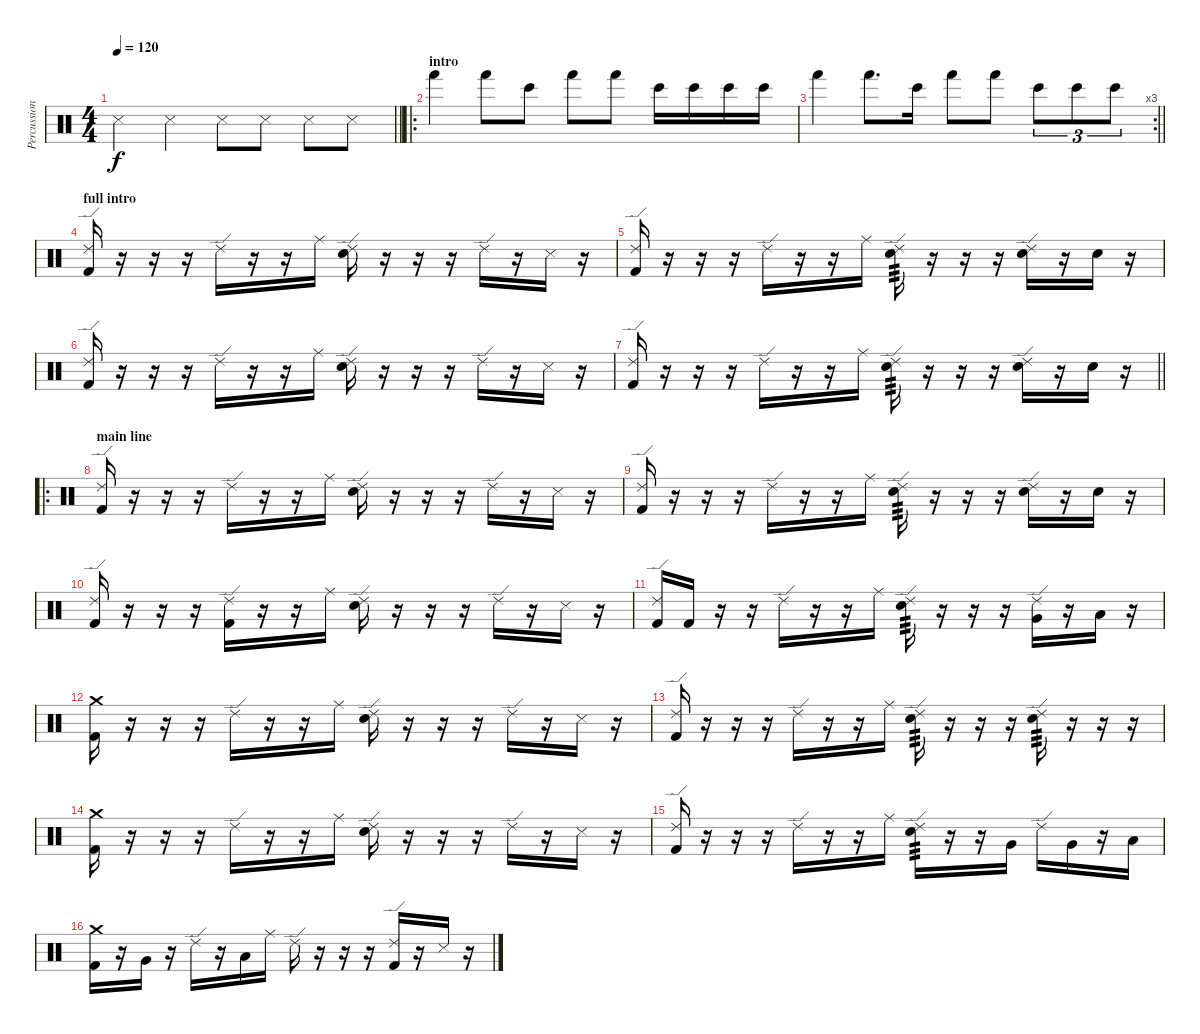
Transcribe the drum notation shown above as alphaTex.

\track ("Percussions" "Percussion") {instrument percussion}
\staff {score}
\articulation defaults
\ts (4 4)
\tempo 120
\clef neutral
\barLineRight lightlight
\ks c "Snare (side stick) 3".4{dy f} "Snare (side stick) 3".4 "Snare (side stick) 3".8 "Snare (side stick) 3".8 "Snare (side stick) 3".8 "Snare (side stick) 3".8
|
\ro
\section ("" "intro")
"Hand (hit)".4 "Hand (hit)".8 "Bongo High (hit)".8 "Hand (hit)".8 "Hand (hit)".8 "Bongo High (hit)".16 "Bongo High (hit)".16 "Bongo High (hit)".16 "Bongo High (hit)".16 |
\rc 3
\barLineRight lightlight "Hand (hit)".4 "Hand (hit)".8{d} "Bongo High (hit)".16 "Hand (hit)".8 "Hand (hit)".8 "Bongo High (hit)".8{tu (3 2)} "Bongo High (hit)".8{tu (3 2)} "Bongo High (hit)".8{tu (3 2)}
|
\section ("" "full intro")
("Ride (edge) 2" "Kick (hit) 2").16 r.16 r.16 r.16 "Ride (edge) 2".16 r.16 r.16 "Ride (middle)".16 ("Ride (edge) 2" "Snare (hit) 2").16 r.16 r.16 r.16 "Ride (edge) 2".16 r.16 "Snare (side stick) 3".16 r.16 |
("Ride (edge) 2" "Kick (hit) 2").16 r.16 r.16 r.16 "Ride (edge) 2".16 r.16 r.16 "Ride (middle)".16 ("Ride (edge) 2" "Snare (hit) 2").16{tp 3} r.16 r.16 r.16 ("Ride (edge) 2" "Snare (hit) 2").16 r.16 "Snare (hit) 2".16 r.16 |
("Ride (edge) 2" "Kick (hit) 2").16 r.16 r.16 r.16 "Ride (edge) 2".16 r.16 r.16 "Ride (middle)".16 ("Ride (edge) 2" "Snare (hit) 2").16 r.16 r.16 r.16 "Ride (edge) 2".16 r.16 "Snare (side stick) 3".16 r.16 |
\barLineRight lightlight
("Ride (edge) 2" "Kick (hit) 2").16 r.16 r.16 r.16 "Ride (edge) 2".16 r.16 r.16 "Ride (middle)".16 ("Ride (edge) 2" "Snare (hit) 2").16{tp 3} r.16 r.16 r.16 ("Ride (edge) 2" "Snare (hit) 2").16 r.16 "Snare (hit) 2".16 r.16 |
\ro
\section ("" "main line")
("Ride (edge) 2" "Kick (hit) 2").16 r.16 r.16 r.16 "Ride (edge) 2".16 r.16 r.16 "Ride (middle)".16 ("Ride (edge) 2" "Snare (hit) 2").16 r.16 r.16 r.16 "Ride (edge) 2".16 r.16 "Snare (side stick) 3".16 r.16 |
("Ride (edge) 2" "Kick (hit) 2").16 r.16 r.16 r.16 "Ride (edge) 2".16 r.16 r.16 "Ride (middle)".16 ("Ride (edge) 2" "Snare (hit) 2").16{tp 3} r.16 r.16 r.16 ("Ride (edge) 2" "Snare (hit) 2").16 r.16 "Snare (hit) 2".16 r.16 |
("Ride (edge) 2" "Kick (hit) 2").16 r.16 r.16 r.16 ("Ride (edge) 2" "Kick (hit) 2").16 r.16 r.16 "Ride (middle)".16 ("Ride (edge) 2" "Snare (hit) 2").16 r.16 r.16 r.16 "Ride (edge) 2".16 r.16 "Snare (side stick) 3".16 r.16 |
("Ride (edge) 2" "Kick (hit) 2").16 "Kick (hit) 2".16 r.16 r.16 "Ride (edge) 2".16 r.16 r.16 "Ride (middle)".16 ("Ride (edge) 2" "Snare (hit) 2").16{tp 3} r.16 r.16 r.16 ("Ride (edge) 2" "Very Low Tom (hit)").16 r.16 "Low Floor Tom (hit)".16 r.16 |
("Crash medium (hit)" "Kick (hit) 2").16 r.16 r.16 r.16 "Ride (edge) 2".16 r.16 r.16 "Ride (middle)".16 ("Ride (edge) 2" "Snare (hit) 2").16 r.16 r.16 r.16 "Ride (edge) 2".16 r.16 "Snare (side stick) 3".16 r.16 |
("Ride (edge) 2" "Kick (hit) 2").16 r.16 r.16 r.16 "Ride (edge) 2".16 r.16 r.16 "Ride (middle)".16 ("Ride (edge) 2" "Snare (hit) 2").16{tp 3} r.16 r.16 r.16 ("Ride (edge) 2" "Snare (hit) 2").16{tp 3} r.16 r.16 r.16 |
("Crash medium (hit)" "Kick (hit) 2").16 r.16 r.16 r.16 "Ride (edge) 2".16 r.16 r.16 "Ride (middle)".16 ("Ride (edge) 2" "Snare (hit) 2").16 r.16 r.16 r.16 "Ride (edge) 2".16 r.16 "Snare (side stick) 3".16 r.16 |
("Ride (edge) 2" "Kick (hit) 2").16 r.16 r.16 r.16 "Ride (edge) 2".16 r.16 r.16 "Ride (middle)".16 ("Ride (edge) 2" "Snare (hit) 2").16{tp 3} r.16 r.16 "Very Low Tom (hit)".16 "Ride (edge) 2".16 "Very Low Tom (hit)".16 r.16 "Low Floor Tom (hit)".16 |
("Crash medium (hit)" "Kick (hit) 2").16 r.16 "Very Low Tom (hit)".16 r.16 "Ride (edge) 2".16 r.16 "Low Floor Tom (hit)".16 "Ride (middle)".16 "Ride (edge) 2".16 r.16 r.16 r.16 ("Ride (edge) 2" "Kick (hit) 2").16 r.16 "Snare (side stick) 3".16 r.16
